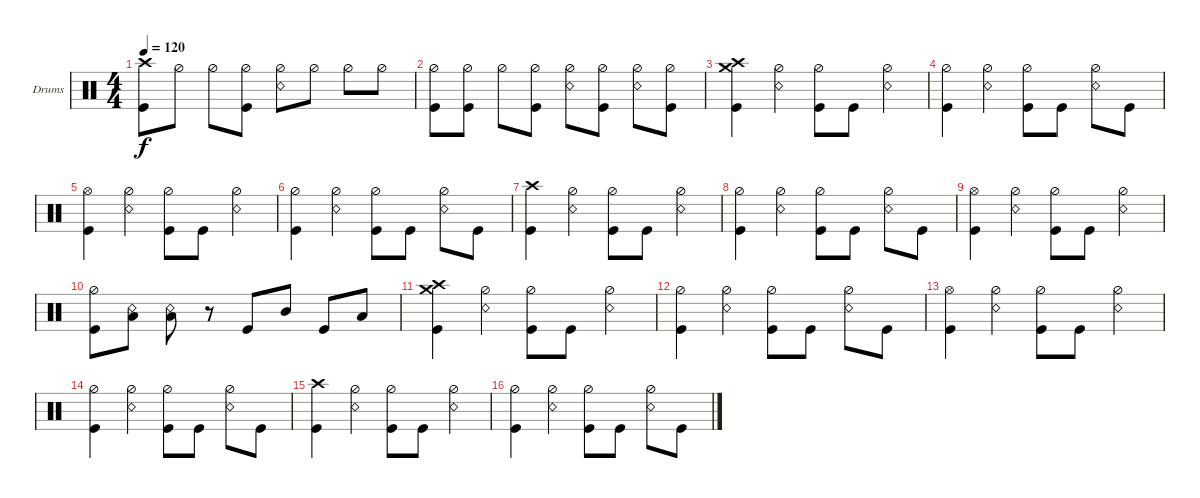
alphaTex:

\defaultSystemsLayout 4
\bracketExtendMode groupsimilarinstruments
\firstSystemTrackNameOrientation horizontal
\otherSystemsTrackNameOrientation horizontal
\track ("Drumkit" "Drums") {instrument percussion}
\staff {score}
\articulation defaults
\ts (4 4)
\tempo 120
\clef neutral
\ks c
("Kick (hit)" "Crash high (hit)").8{dy f} "Hi-Hat (half)".8 "Hi-Hat (half)".8 ("Kick (hit)" "Hi-Hat (half)").8 ("Snare (rim shot)" "Hi-Hat (half)").8 "Hi-Hat (half)".8 "Hi-Hat (half)".8 "Hi-Hat (half)".8 |
("Kick (hit)" "Hi-Hat (half)").8 ("Hi-Hat (half)" "Kick (hit)").8 "Hi-Hat (half)".8 ("Kick (hit)" "Hi-Hat (half)").8 ("Snare (rim shot)" "Hi-Hat (half)").8 ("Hi-Hat (half)" "Kick (hit)").8 ("Hi-Hat (half)" "Snare (rim shot)").8 ("Hi-Hat (half)" "Kick (hit)").8 |
("Kick (hit)" "Crash high (hit)" "Crash medium (hit)").4 ("Snare (rim shot)" "Hi-Hat (half)").4 ("Kick (hit)" "Hi-Hat (half)").8 "Kick (hit)".8 ("Snare (rim shot)" "Hi-Hat (half)").4 |
("Kick (hit)" "Hi-Hat (half)").4 ("Snare (rim shot)" "Hi-Hat (half)").4 ("Kick (hit)" "Hi-Hat (half)").8 "Kick (hit)".8 ("Snare (rim shot)" "Hi-Hat (half)").8 "Kick (hit)".8 |
("Kick (hit)" "Hi-Hat (open)").4 ("Snare (rim shot)" "Hi-Hat (half)").4 ("Kick (hit)" "Hi-Hat (half)").8 "Kick (hit)".8 ("Snare (rim shot)" "Hi-Hat (half)").4 |
("Kick (hit)" "Hi-Hat (half)").4 ("Snare (rim shot)" "Hi-Hat (half)").4 ("Kick (hit)" "Hi-Hat (half)").8 "Kick (hit)".8 ("Snare (rim shot)" "Hi-Hat (half)").8 "Kick (hit)".8 |
("Kick (hit)" "Crash high (hit)").4 ("Snare (rim shot)" "Hi-Hat (half)").4 ("Kick (hit)" "Hi-Hat (half)").8 "Kick (hit)".8 ("Snare (rim shot)" "Hi-Hat (half)").4 |
("Kick (hit)" "Hi-Hat (half)").4 ("Snare (rim shot)" "Hi-Hat (half)").4 ("Kick (hit)" "Hi-Hat (half)").8 "Kick (hit)".8 ("Snare (rim shot)" "Hi-Hat (half)").8 "Kick (hit)".8 |
("Kick (hit)" "Hi-Hat (open)").4 ("Snare (rim shot)" "Hi-Hat (half)").4 ("Kick (hit)" "Hi-Hat (half)").8 "Kick (hit)".8 ("Snare (rim shot)" "Hi-Hat (half)").4 |
("Kick (hit)" "Hi-Hat (half)").8 ("Snare (rim shot)" "Low Tom (hit)").8 ("Snare (rim shot)" "Low Tom (hit)").8 r.8 "Kick (hit)".8 "Mid Tom (hit)".8 "Kick (hit)".8 "Low Tom (hit)".8 |
("Kick (hit)" "Crash high (hit)" "Crash medium (hit)").4 ("Snare (rim shot)" "Hi-Hat (half)").4 ("Kick (hit)" "Hi-Hat (half)").8 "Kick (hit)".8 ("Snare (rim shot)" "Hi-Hat (half)").4 |
("Kick (hit)" "Hi-Hat (half)").4 ("Snare (rim shot)" "Hi-Hat (half)").4 ("Kick (hit)" "Hi-Hat (half)").8 "Kick (hit)".8 ("Snare (rim shot)" "Hi-Hat (half)").8 "Kick (hit)".8 |
("Kick (hit)" "Hi-Hat (open)").4 ("Snare (rim shot)" "Hi-Hat (half)").4 ("Kick (hit)" "Hi-Hat (half)").8 "Kick (hit)".8 ("Snare (rim shot)" "Hi-Hat (half)").4 |
("Kick (hit)" "Hi-Hat (half)").4 ("Snare (rim shot)" "Hi-Hat (half)").4 ("Kick (hit)" "Hi-Hat (half)").8 "Kick (hit)".8 ("Snare (rim shot)" "Hi-Hat (half)").8 "Kick (hit)".8 |
("Kick (hit)" "Crash high (hit)").4 ("Snare (rim shot)" "Hi-Hat (half)").4 ("Kick (hit)" "Hi-Hat (half)").8 "Kick (hit)".8 ("Snare (rim shot)" "Hi-Hat (half)").4 |
("Kick (hit)" "Hi-Hat (half)").4 ("Snare (rim shot)" "Hi-Hat (half)").4 ("Kick (hit)" "Hi-Hat (half)").8 "Kick (hit)".8 ("Snare (rim shot)" "Hi-Hat (half)").8 "Kick (hit)".8
